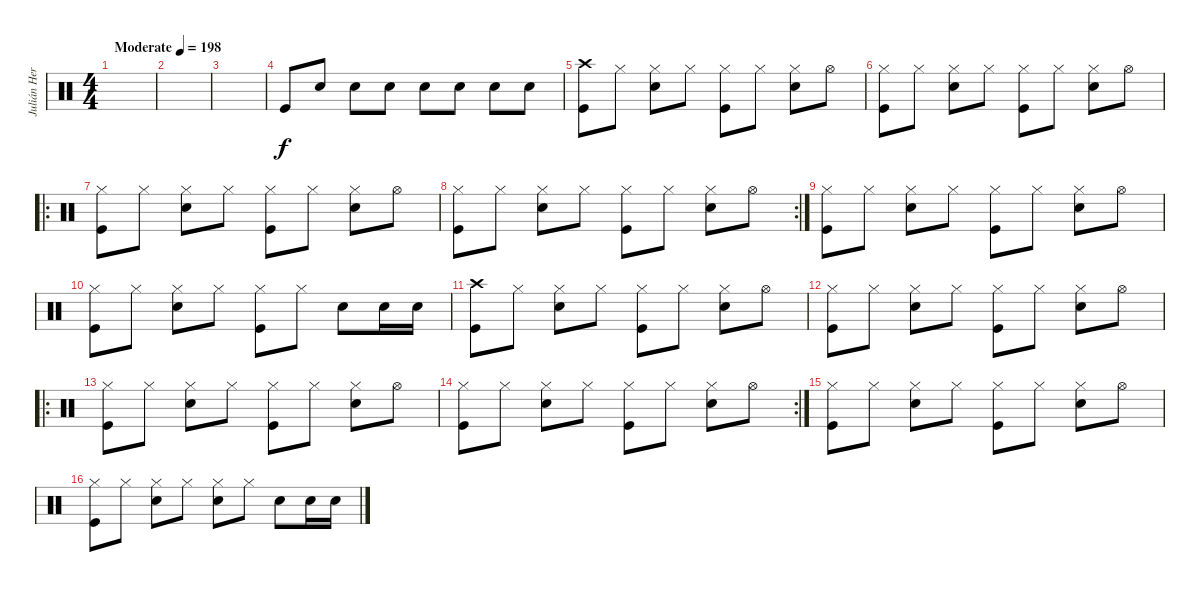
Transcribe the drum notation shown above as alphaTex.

\track ("Julián Hernández - Batería" "Julián Her") {instrument percussion}
\staff {score}
\articulation defaults
\ts (4 4)
\tempo (198 "Moderate")
\clef neutral
\ks c
|
|
|
"Kick (hit)".8 "Electric Snare (hit)".8 "Electric Snare (hit)".8 "Electric Snare (hit)".8 "Electric Snare (hit)".8 "Electric Snare (hit)".8 "Electric Snare (hit)".8 "Electric Snare (hit)".8 |
("Crash high (hit)" "Kick (hit)").8 "Hi-Hat (closed)".8 ("Hi-Hat (closed)" "Electric Snare (hit)").8 "Hi-Hat (closed)".8 ("Hi-Hat (closed)" "Kick (hit)").8 "Hi-Hat (closed)".8 ("Hi-Hat (closed)" "Electric Snare (hit)").8 "Hi-Hat (open)".8 |
("Hi-Hat (closed)" "Kick (hit)").8 "Hi-Hat (closed)".8 ("Hi-Hat (closed)" "Electric Snare (hit)").8 "Hi-Hat (closed)".8 ("Hi-Hat (closed)" "Kick (hit)").8 "Hi-Hat (closed)".8 ("Hi-Hat (closed)" "Electric Snare (hit)").8 "Hi-Hat (open)".8 |
\ro
("Hi-Hat (closed)" "Kick (hit)").8 "Hi-Hat (closed)".8 ("Hi-Hat (closed)" "Electric Snare (hit)").8 "Hi-Hat (closed)".8 ("Hi-Hat (closed)" "Kick (hit)").8 "Hi-Hat (closed)".8 ("Hi-Hat (closed)" "Electric Snare (hit)").8 "Hi-Hat (open)".8 |
\rc 2
("Hi-Hat (closed)" "Kick (hit)").8 "Hi-Hat (closed)".8 ("Hi-Hat (closed)" "Electric Snare (hit)").8 "Hi-Hat (closed)".8 ("Hi-Hat (closed)" "Kick (hit)").8 "Hi-Hat (closed)".8 ("Hi-Hat (closed)" "Electric Snare (hit)").8 "Hi-Hat (open)".8 |
("Hi-Hat (closed)" "Kick (hit)").8 "Hi-Hat (closed)".8 ("Hi-Hat (closed)" "Electric Snare (hit)").8 "Hi-Hat (closed)".8 ("Hi-Hat (closed)" "Kick (hit)").8 "Hi-Hat (closed)".8 ("Hi-Hat (closed)" "Electric Snare (hit)").8 "Hi-Hat (open)".8 |
("Hi-Hat (closed)" "Kick (hit)").8 "Hi-Hat (closed)".8 ("Hi-Hat (closed)" "Electric Snare (hit)").8 "Hi-Hat (closed)".8 ("Hi-Hat (closed)" "Kick (hit)").8 "Hi-Hat (closed)".8 "Electric Snare (hit)".8 "Electric Snare (hit)".16 "Electric Snare (hit)".16 |
("Crash high (hit)" "Kick (hit)").8 "Hi-Hat (closed)".8 ("Hi-Hat (closed)" "Electric Snare (hit)").8 "Hi-Hat (closed)".8 ("Hi-Hat (closed)" "Kick (hit)").8 "Hi-Hat (closed)".8 ("Hi-Hat (closed)" "Electric Snare (hit)").8 "Hi-Hat (open)".8 |
("Hi-Hat (closed)" "Kick (hit)").8 "Hi-Hat (closed)".8 ("Hi-Hat (closed)" "Electric Snare (hit)").8 "Hi-Hat (closed)".8 ("Hi-Hat (closed)" "Kick (hit)").8 "Hi-Hat (closed)".8 ("Hi-Hat (closed)" "Electric Snare (hit)").8 "Hi-Hat (open)".8 |
\ro
("Hi-Hat (closed)" "Kick (hit)").8 "Hi-Hat (closed)".8 ("Hi-Hat (closed)" "Electric Snare (hit)").8 "Hi-Hat (closed)".8 ("Hi-Hat (closed)" "Kick (hit)").8 "Hi-Hat (closed)".8 ("Hi-Hat (closed)" "Electric Snare (hit)").8 "Hi-Hat (open)".8 |
\rc 2
("Hi-Hat (closed)" "Kick (hit)").8 "Hi-Hat (closed)".8 ("Hi-Hat (closed)" "Electric Snare (hit)").8 "Hi-Hat (closed)".8 ("Hi-Hat (closed)" "Kick (hit)").8 "Hi-Hat (closed)".8 ("Hi-Hat (closed)" "Electric Snare (hit)").8 "Hi-Hat (open)".8 |
("Hi-Hat (closed)" "Kick (hit)").8 "Hi-Hat (closed)".8 ("Hi-Hat (closed)" "Electric Snare (hit)").8 "Hi-Hat (closed)".8 ("Hi-Hat (closed)" "Kick (hit)").8 "Hi-Hat (closed)".8 ("Hi-Hat (closed)" "Electric Snare (hit)").8 "Hi-Hat (open)".8 |
("Hi-Hat (closed)" "Kick (hit)").8 "Hi-Hat (closed)".8 ("Hi-Hat (closed)" "Electric Snare (hit)").8 "Hi-Hat (closed)".8 ("Hi-Hat (closed)" "Electric Snare (hit)").8 "Hi-Hat (closed)".8 "Electric Snare (hit)".8 "Electric Snare (hit)".16 "Electric Snare (hit)".16
